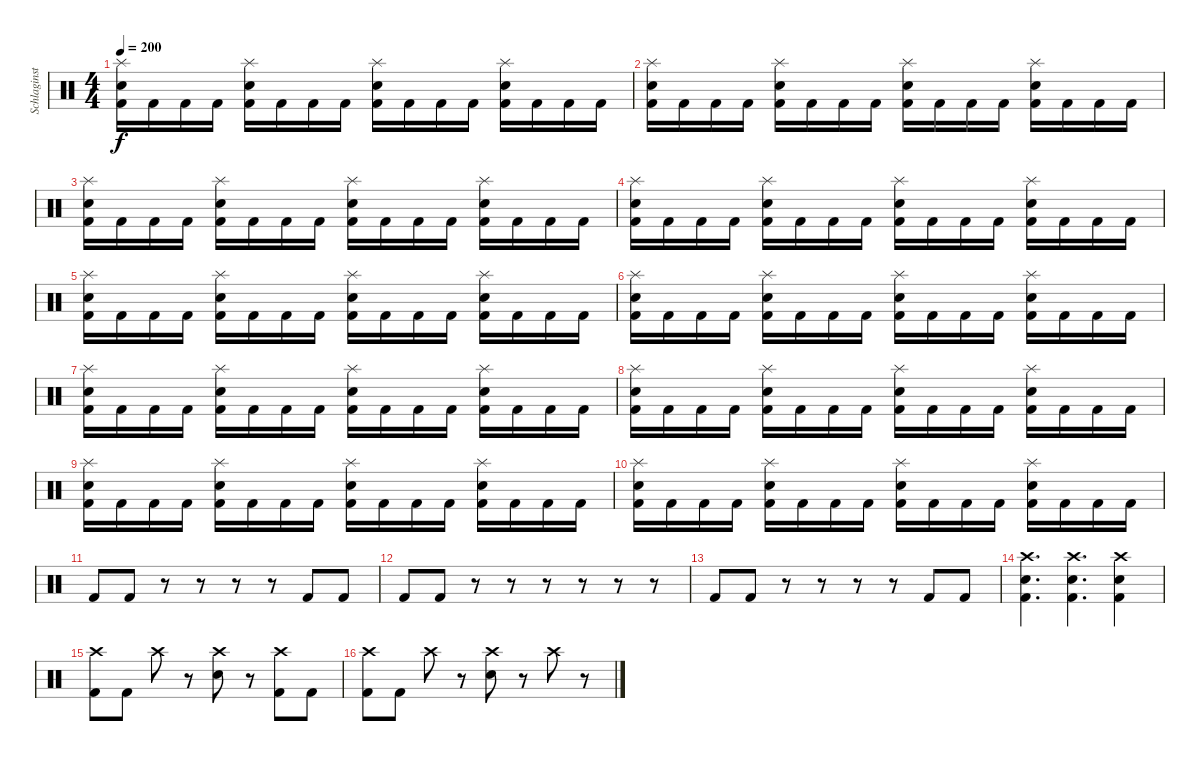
\track ("Schlaginstrumente - Auswahl" "Schlaginst") {instrument percussion}
\staff {score}
\articulation defaults
\ts (4 4)
\tempo 200
\clef neutral
\ks c
("Splash (hit)" "Electric Snare (hit)" "Kick (hit) 2").16{dy f} "Kick (hit) 2".16 "Kick (hit) 2".16 "Kick (hit) 2".16 ("Splash (hit)" "Electric Snare (hit)" "Kick (hit) 2").16 "Kick (hit) 2".16 "Kick (hit) 2".16 "Kick (hit) 2".16 ("Splash (hit)" "Electric Snare (hit)" "Kick (hit) 2").16 "Kick (hit) 2".16 "Kick (hit) 2".16 "Kick (hit) 2".16 ("Splash (hit)" "Electric Snare (hit)" "Kick (hit) 2").16 "Kick (hit) 2".16 "Kick (hit) 2".16 "Kick (hit) 2".16 |
("Splash (hit)" "Electric Snare (hit)" "Kick (hit) 2").16 "Kick (hit) 2".16 "Kick (hit) 2".16 "Kick (hit) 2".16 ("Splash (hit)" "Electric Snare (hit)" "Kick (hit) 2").16 "Kick (hit) 2".16 "Kick (hit) 2".16 "Kick (hit) 2".16 ("Splash (hit)" "Electric Snare (hit)" "Kick (hit) 2").16 "Kick (hit) 2".16 "Kick (hit) 2".16 "Kick (hit) 2".16 ("Splash (hit)" "Electric Snare (hit)" "Kick (hit) 2").16 "Kick (hit) 2".16 "Kick (hit) 2".16 "Kick (hit) 2".16 |
("Splash (hit)" "Electric Snare (hit)" "Kick (hit) 2").16 "Kick (hit) 2".16 "Kick (hit) 2".16 "Kick (hit) 2".16 ("Splash (hit)" "Electric Snare (hit)" "Kick (hit) 2").16 "Kick (hit) 2".16 "Kick (hit) 2".16 "Kick (hit) 2".16 ("Splash (hit)" "Electric Snare (hit)" "Kick (hit) 2").16 "Kick (hit) 2".16 "Kick (hit) 2".16 "Kick (hit) 2".16 ("Splash (hit)" "Electric Snare (hit)" "Kick (hit) 2").16 "Kick (hit) 2".16 "Kick (hit) 2".16 "Kick (hit) 2".16 |
("Splash (hit)" "Electric Snare (hit)" "Kick (hit) 2").16 "Kick (hit) 2".16 "Kick (hit) 2".16 "Kick (hit) 2".16 ("Splash (hit)" "Electric Snare (hit)" "Kick (hit) 2").16 "Kick (hit) 2".16 "Kick (hit) 2".16 "Kick (hit) 2".16 ("Splash (hit)" "Electric Snare (hit)" "Kick (hit) 2").16 "Kick (hit) 2".16 "Kick (hit) 2".16 "Kick (hit) 2".16 ("Splash (hit)" "Electric Snare (hit)" "Kick (hit) 2").16 "Kick (hit) 2".16 "Kick (hit) 2".16 "Kick (hit) 2".16 |
("Splash (hit)" "Electric Snare (hit)" "Kick (hit) 2").16 "Kick (hit) 2".16 "Kick (hit) 2".16 "Kick (hit) 2".16 ("Splash (hit)" "Electric Snare (hit)" "Kick (hit) 2").16 "Kick (hit) 2".16 "Kick (hit) 2".16 "Kick (hit) 2".16 ("Splash (hit)" "Electric Snare (hit)" "Kick (hit) 2").16 "Kick (hit) 2".16 "Kick (hit) 2".16 "Kick (hit) 2".16 ("Splash (hit)" "Electric Snare (hit)" "Kick (hit) 2").16 "Kick (hit) 2".16 "Kick (hit) 2".16 "Kick (hit) 2".16 |
("Splash (hit)" "Electric Snare (hit)" "Kick (hit) 2").16 "Kick (hit) 2".16 "Kick (hit) 2".16 "Kick (hit) 2".16 ("Splash (hit)" "Electric Snare (hit)" "Kick (hit) 2").16 "Kick (hit) 2".16 "Kick (hit) 2".16 "Kick (hit) 2".16 ("Splash (hit)" "Electric Snare (hit)" "Kick (hit) 2").16 "Kick (hit) 2".16 "Kick (hit) 2".16 "Kick (hit) 2".16 ("Splash (hit)" "Electric Snare (hit)" "Kick (hit) 2").16 "Kick (hit) 2".16 "Kick (hit) 2".16 "Kick (hit) 2".16 |
("Splash (hit)" "Electric Snare (hit)" "Kick (hit) 2").16 "Kick (hit) 2".16 "Kick (hit) 2".16 "Kick (hit) 2".16 ("Splash (hit)" "Electric Snare (hit)" "Kick (hit) 2").16 "Kick (hit) 2".16 "Kick (hit) 2".16 "Kick (hit) 2".16 ("Splash (hit)" "Electric Snare (hit)" "Kick (hit) 2").16 "Kick (hit) 2".16 "Kick (hit) 2".16 "Kick (hit) 2".16 ("Splash (hit)" "Electric Snare (hit)" "Kick (hit) 2").16 "Kick (hit) 2".16 "Kick (hit) 2".16 "Kick (hit) 2".16 |
("Splash (hit)" "Electric Snare (hit)" "Kick (hit) 2").16 "Kick (hit) 2".16 "Kick (hit) 2".16 "Kick (hit) 2".16 ("Splash (hit)" "Electric Snare (hit)" "Kick (hit) 2").16 "Kick (hit) 2".16 "Kick (hit) 2".16 "Kick (hit) 2".16 ("Splash (hit)" "Electric Snare (hit)" "Kick (hit) 2").16 "Kick (hit) 2".16 "Kick (hit) 2".16 "Kick (hit) 2".16 ("Splash (hit)" "Electric Snare (hit)" "Kick (hit) 2").16 "Kick (hit) 2".16 "Kick (hit) 2".16 "Kick (hit) 2".16 |
("Splash (hit)" "Electric Snare (hit)" "Kick (hit) 2").16 "Kick (hit) 2".16 "Kick (hit) 2".16 "Kick (hit) 2".16 ("Splash (hit)" "Electric Snare (hit)" "Kick (hit) 2").16 "Kick (hit) 2".16 "Kick (hit) 2".16 "Kick (hit) 2".16 ("Splash (hit)" "Electric Snare (hit)" "Kick (hit) 2").16 "Kick (hit) 2".16 "Kick (hit) 2".16 "Kick (hit) 2".16 ("Splash (hit)" "Electric Snare (hit)" "Kick (hit) 2").16 "Kick (hit) 2".16 "Kick (hit) 2".16 "Kick (hit) 2".16 |
("Splash (hit)" "Electric Snare (hit)" "Kick (hit) 2").16 "Kick (hit) 2".16 "Kick (hit) 2".16 "Kick (hit) 2".16 ("Splash (hit)" "Electric Snare (hit)" "Kick (hit) 2").16 "Kick (hit) 2".16 "Kick (hit) 2".16 "Kick (hit) 2".16 ("Splash (hit)" "Electric Snare (hit)" "Kick (hit) 2").16 "Kick (hit) 2".16 "Kick (hit) 2".16 "Kick (hit) 2".16 ("Splash (hit)" "Electric Snare (hit)" "Kick (hit) 2").16 "Kick (hit) 2".16 "Kick (hit) 2".16 "Kick (hit) 2".16 |
"Kick (hit) 2".8 "Kick (hit) 2".8 r.8 r.8 r.8 r.8 "Kick (hit) 2".8 "Kick (hit) 2".8 |
"Kick (hit) 2".8 "Kick (hit) 2".8 r.8 r.8 r.8 r.8 r.8 r.8 |
"Kick (hit) 2".8 "Kick (hit) 2".8 r.8 r.8 r.8 r.8 "Kick (hit) 2".8 "Kick (hit) 2".8 |
("Crash high (hit)" "Electric Snare (hit)" "Kick (hit) 2").4{d} ("Crash high (hit)" "Electric Snare (hit)" "Kick (hit) 2").4{d} ("Crash high (hit)" "Electric Snare (hit)" "Kick (hit) 2").4 |
("Crash high (hit)" "Kick (hit) 2").8 "Kick (hit) 2".8 "Crash high (hit)".8 r.8 ("Crash high (hit)" "Electric Snare (hit)").8 r.8 ("Crash high (hit)" "Kick (hit) 2").8 "Kick (hit) 2".8 |
("Crash high (hit)" "Kick (hit) 2").8 "Kick (hit) 2".8 "Crash high (hit)".8 r.8 ("Crash high (hit)" "Electric Snare (hit)").8 r.8 "Crash high (hit)".8 r.8
